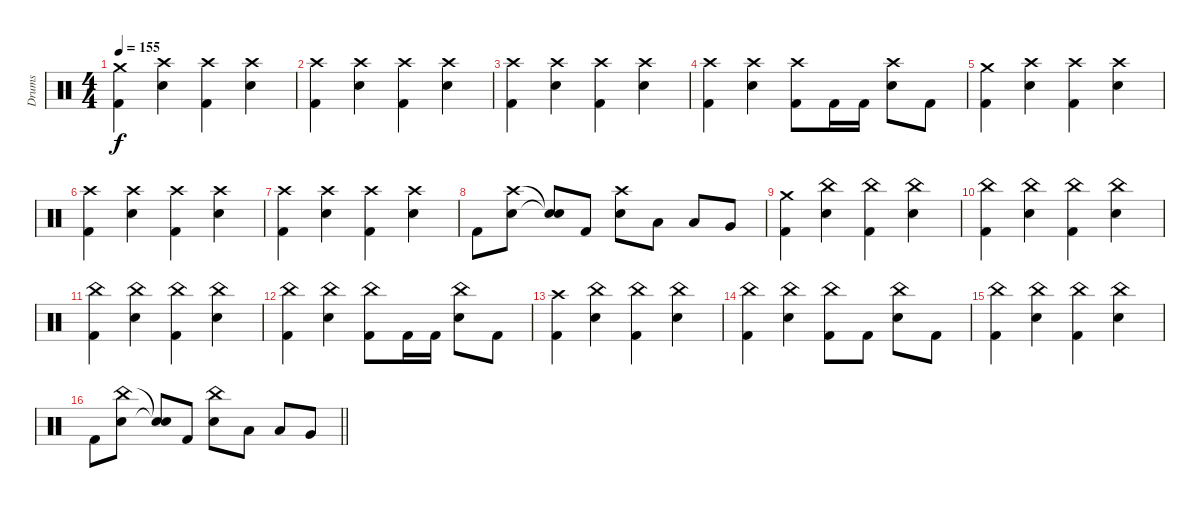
\track ("Drums" "Drums") {instrument percussion}
\staff {score}
\articulation defaults
\ts (4 4)
\tempo 155
\clef neutral
\ks c
("Kick (hit) 2" "Crash medium (hit)").4{dy f} ("Crash high (hit)" "Electric Snare (hit)").4 ("Kick (hit) 2" "Crash high (hit)").4 ("Crash high (hit)" "Electric Snare (hit)").4 |
("Kick (hit) 2" "Crash high (hit)").4 ("Crash high (hit)" "Electric Snare (hit)").4 ("Kick (hit) 2" "Crash high (hit)").4 ("Crash high (hit)" "Electric Snare (hit)").4 |
("Kick (hit) 2" "Crash high (hit)").4 ("Crash high (hit)" "Electric Snare (hit)").4 ("Kick (hit) 2" "Crash high (hit)").4 ("Crash high (hit)" "Electric Snare (hit)").4 |
("Kick (hit) 2" "Crash high (hit)").4 ("Crash high (hit)" "Electric Snare (hit)").4 ("Kick (hit) 2" "Crash high (hit)").8 "Kick (hit) 2".16 "Kick (hit) 2".16 ("Crash high (hit)" "Electric Snare (hit)").8 "Kick (hit) 2".8 |
("Kick (hit) 2" "Crash medium (hit)").4 ("Crash high (hit)" "Electric Snare (hit)").4 ("Kick (hit) 2" "Crash high (hit)").4 ("Crash high (hit)" "Electric Snare (hit)").4 |
("Kick (hit) 2" "Crash high (hit)").4 ("Crash high (hit)" "Electric Snare (hit)").4 ("Kick (hit) 2" "Crash high (hit)").4 ("Crash high (hit)" "Electric Snare (hit)").4 |
("Kick (hit) 2" "Crash high (hit)").4 ("Crash high (hit)" "Electric Snare (hit)").4 ("Kick (hit) 2" "Crash high (hit)").4 ("Crash high (hit)" "Electric Snare (hit)").4 |
"Kick (hit) 2".8 ("Crash high (hit)" "Electric Snare (hit)").8 ("Snare (hit)"{t} "Snare (hit)"{t}).8 "Kick (hit) 2".8 ("Crash high (hit)" "Electric Snare (hit)").8 "Low Tom (hit)".8 "Low Tom (hit)".8 "Very Low Tom (hit)".8 |
("Kick (hit) 2" "Crash medium (hit)").4 ("China (hit)" "Electric Snare (hit)").4 ("Kick (hit) 2" "China (hit)").4 ("China (hit)" "Electric Snare (hit)").4 |
("Kick (hit) 2" "China (hit)").4 ("China (hit)" "Electric Snare (hit)").4 ("Kick (hit) 2" "China (hit)").4 ("China (hit)" "Electric Snare (hit)").4 |
("Kick (hit) 2" "China (hit)").4 ("China (hit)" "Electric Snare (hit)").4 ("Kick (hit) 2" "China (hit)").4 ("China (hit)" "Electric Snare (hit)").4 |
("Kick (hit) 2" "China (hit)").4 ("China (hit)" "Electric Snare (hit)").4 ("Kick (hit) 2" "China (hit)").8 "Kick (hit) 2".16 "Kick (hit) 2".16 ("China (hit)" "Electric Snare (hit)").8 "Kick (hit) 2".8 |
("Kick (hit) 2" "Crash high (hit)").4 ("China (hit)" "Electric Snare (hit)").4 ("Kick (hit) 2" "China (hit)").4 ("China (hit)" "Electric Snare (hit)").4 |
("Kick (hit) 2" "China (hit)").4 ("China (hit)" "Electric Snare (hit)").4 ("Kick (hit) 2" "China (hit)").8 "Kick (hit) 2".8 ("China (hit)" "Electric Snare (hit)").8 "Kick (hit) 2".8 |
("Kick (hit) 2" "China (hit)").4 ("China (hit)" "Electric Snare (hit)").4 ("Kick (hit) 2" "China (hit)").4 ("China (hit)" "Electric Snare (hit)").4 |
\barLineRight lightlight "Kick (hit) 2".8
("China (hit)" "Electric Snare (hit)").8 ("Snare (hit)"{t} "Snare (hit)"{t}).8 "Kick (hit) 2".8 ("China (hit)" "Electric Snare (hit)").8 "Low Tom (hit)".8 "Low Tom (hit)".8 "Very Low Tom (hit)".8
